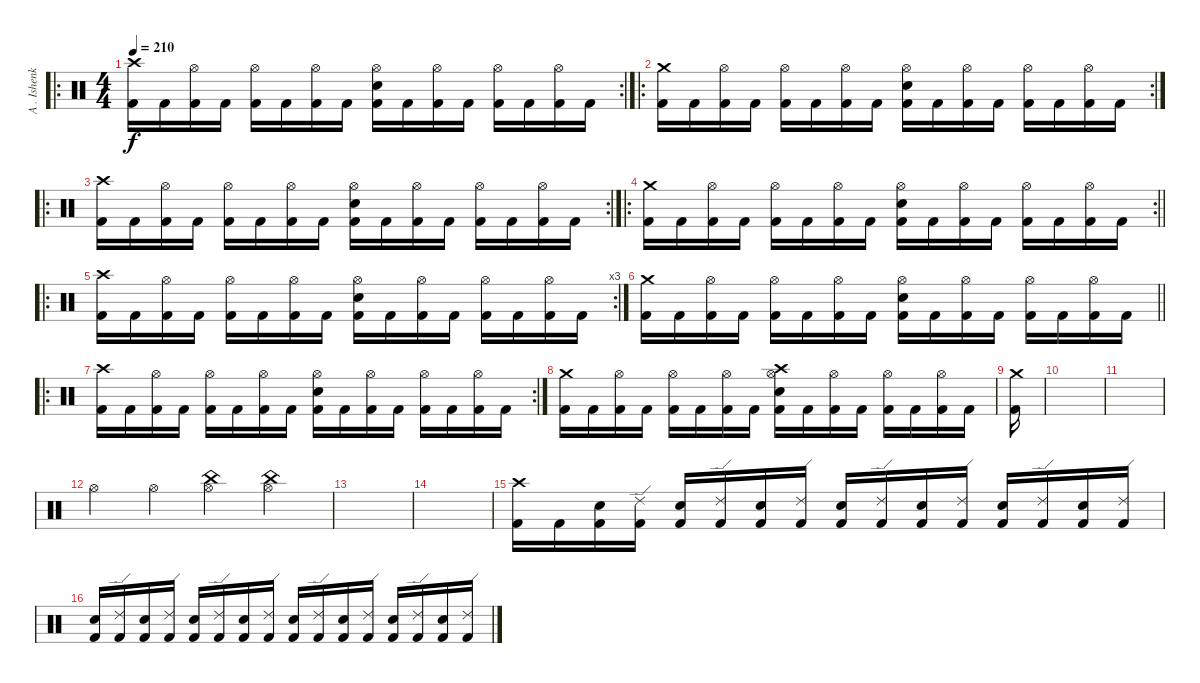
\track ("A . Ishenko" "A . Ishenk") {instrument percussion}
\staff {score}
\articulation defaults
\ro
\rc 2
\ts (4 4)
\tempo 210
\clef neutral
\ks c
("Crash high (hit)" "Kick (hit) 2").16{dy f} "Kick (hit) 2".16 ("Hi-Hat (open)" "Kick (hit) 2").16 "Kick (hit) 2".16 ("Hi-Hat (open)" "Kick (hit) 2").16 "Kick (hit) 2".16 ("Hi-Hat (open)" "Kick (hit) 2").16 "Kick (hit) 2".16 ("Hi-Hat (open)" "Electric Snare (hit)" "Kick (hit) 2").16 "Kick (hit) 2".16 ("Hi-Hat (open)" "Kick (hit) 2").16 "Kick (hit) 2".16 ("Hi-Hat (open)" "Kick (hit) 2").16 "Kick (hit) 2".16 ("Hi-Hat (open)" "Kick (hit) 2").16 "Kick (hit) 2".16 |
\ro
\rc 2
("Crash medium (hit)" "Kick (hit) 2").16 "Kick (hit) 2".16 ("Hi-Hat (open)" "Kick (hit) 2").16 "Kick (hit) 2".16 ("Hi-Hat (open)" "Kick (hit) 2").16 "Kick (hit) 2".16 ("Hi-Hat (open)" "Kick (hit) 2").16 "Kick (hit) 2".16 ("Hi-Hat (open)" "Electric Snare (hit)" "Kick (hit) 2").16 "Kick (hit) 2".16 ("Hi-Hat (open)" "Kick (hit) 2").16 "Kick (hit) 2".16 ("Hi-Hat (open)" "Kick (hit) 2").16 "Kick (hit) 2".16 ("Hi-Hat (open)" "Kick (hit) 2").16 "Kick (hit) 2".16 |
\ro
\rc 2
("Crash high (hit)" "Kick (hit) 2").16 "Kick (hit) 2".16 ("Hi-Hat (open)" "Kick (hit) 2").16 "Kick (hit) 2".16 ("Hi-Hat (open)" "Kick (hit) 2").16 "Kick (hit) 2".16 ("Hi-Hat (open)" "Kick (hit) 2").16 "Kick (hit) 2".16 ("Hi-Hat (open)" "Electric Snare (hit)" "Kick (hit) 2").16 "Kick (hit) 2".16 ("Hi-Hat (open)" "Kick (hit) 2").16 "Kick (hit) 2".16 ("Hi-Hat (open)" "Kick (hit) 2").16 "Kick (hit) 2".16 ("Hi-Hat (open)" "Kick (hit) 2").16 "Kick (hit) 2".16 |
\ro
\rc 2
\barLineRight lightlight
("Crash medium (hit)" "Kick (hit) 2").16 "Kick (hit) 2".16 ("Hi-Hat (open)" "Kick (hit) 2").16 "Kick (hit) 2".16 ("Hi-Hat (open)" "Kick (hit) 2").16 "Kick (hit) 2".16 ("Hi-Hat (open)" "Kick (hit) 2").16 "Kick (hit) 2".16 ("Hi-Hat (open)" "Electric Snare (hit)" "Kick (hit) 2").16 "Kick (hit) 2".16 ("Hi-Hat (open)" "Kick (hit) 2").16 "Kick (hit) 2".16 ("Hi-Hat (open)" "Kick (hit) 2").16 "Kick (hit) 2".16 ("Hi-Hat (open)" "Kick (hit) 2").16 "Kick (hit) 2".16 |
\ro
\rc 3
("Crash high (hit)" "Kick (hit) 2").16 "Kick (hit) 2".16 ("Hi-Hat (open)" "Kick (hit) 2").16 "Kick (hit) 2".16 ("Hi-Hat (open)" "Kick (hit) 2").16 "Kick (hit) 2".16 ("Hi-Hat (open)" "Kick (hit) 2").16 "Kick (hit) 2".16 ("Hi-Hat (open)" "Electric Snare (hit)" "Kick (hit) 2").16 "Kick (hit) 2".16 ("Hi-Hat (open)" "Kick (hit) 2").16 "Kick (hit) 2".16 ("Hi-Hat (open)" "Kick (hit) 2").16 "Kick (hit) 2".16 ("Hi-Hat (open)" "Kick (hit) 2").16 "Kick (hit) 2".16 |
\barLineRight lightlight
("Crash medium (hit)" "Kick (hit) 2").16 "Kick (hit) 2".16 ("Hi-Hat (open)" "Kick (hit) 2").16 "Kick (hit) 2".16 ("Hi-Hat (open)" "Kick (hit) 2").16 "Kick (hit) 2".16 ("Hi-Hat (open)" "Kick (hit) 2").16 "Kick (hit) 2".16 ("Hi-Hat (open)" "Electric Snare (hit)" "Kick (hit) 2").16 "Kick (hit) 2".16 ("Hi-Hat (open)" "Kick (hit) 2").16 "Kick (hit) 2".16 ("Hi-Hat (open)" "Kick (hit) 2").16 "Kick (hit) 2".16 ("Hi-Hat (open)" "Kick (hit) 2").16 "Kick (hit) 2".16 |
\ro
\rc 2
("Crash high (hit)" "Kick (hit) 2").16 "Kick (hit) 2".16 ("Hi-Hat (open)" "Kick (hit) 2").16 "Kick (hit) 2".16 ("Hi-Hat (open)" "Kick (hit) 2").16 "Kick (hit) 2".16 ("Hi-Hat (open)" "Kick (hit) 2").16 "Kick (hit) 2".16 ("Hi-Hat (open)" "Electric Snare (hit)" "Kick (hit) 2").16 "Kick (hit) 2".16 ("Hi-Hat (open)" "Kick (hit) 2").16 "Kick (hit) 2".16 ("Hi-Hat (open)" "Kick (hit) 2").16 "Kick (hit) 2".16 ("Hi-Hat (open)" "Kick (hit) 2").16 "Kick (hit) 2".16 |
("Crash medium (hit)" "Kick (hit) 2").16 "Kick (hit) 2".16 ("Hi-Hat (open)" "Kick (hit) 2").16 "Kick (hit) 2".16 ("Hi-Hat (open)" "Kick (hit) 2").16 "Kick (hit) 2".16 ("Hi-Hat (open)" "Kick (hit) 2").16 "Kick (hit) 2".16 ("Hi-Hat (open)" "Electric Snare (hit)" "Crash high (hit)" "Kick (hit) 2").16 "Kick (hit) 2".16 ("Hi-Hat (open)" "Kick (hit) 2").16 "Kick (hit) 2".16 ("Hi-Hat (open)" "Kick (hit) 2").16 "Kick (hit) 2".16 ("Hi-Hat (open)" "Kick (hit) 2").16 "Kick (hit) 2".16 |
("Crash medium (hit)" "Kick (hit) 2").16 |
|
|
"Hi-Hat (open)".4 "Hi-Hat (open)".4 ("Hi-Hat (open)" "China (hit)").4 ("Hi-Hat (open)" "China (hit)").4 |
|
|
("Crash high (hit)" "Kick (hit) 2").16 "Kick (hit) 2".16 ("Electric Snare (hit)" "Kick (hit) 2").16 ("Ride (edge) 2" "Kick (hit) 2").16 ("Electric Snare (hit)" "Kick (hit) 2").16 ("Ride (edge) 2" "Kick (hit) 2").16 ("Electric Snare (hit)" "Kick (hit) 2").16 ("Ride (edge) 2" "Kick (hit) 2").16 ("Electric Snare (hit)" "Kick (hit) 2").16 ("Ride (edge) 2" "Kick (hit) 2").16 ("Electric Snare (hit)" "Kick (hit) 2").16 ("Ride (edge) 2" "Kick (hit) 2").16 ("Electric Snare (hit)" "Kick (hit) 2").16 ("Ride (edge) 2" "Kick (hit) 2").16 ("Electric Snare (hit)" "Kick (hit) 2").16 ("Ride (edge) 2" "Kick (hit) 2").16 |
("Electric Snare (hit)" "Kick (hit) 2").16 ("Ride (edge) 2" "Kick (hit) 2").16 ("Electric Snare (hit)" "Kick (hit) 2").16 ("Ride (edge) 2" "Kick (hit) 2").16 ("Electric Snare (hit)" "Kick (hit) 2").16 ("Ride (edge) 2" "Kick (hit) 2").16 ("Electric Snare (hit)" "Kick (hit) 2").16 ("Ride (edge) 2" "Kick (hit) 2").16 ("Electric Snare (hit)" "Kick (hit) 2").16 ("Ride (edge) 2" "Kick (hit) 2").16 ("Electric Snare (hit)" "Kick (hit) 2").16 ("Ride (edge) 2" "Kick (hit) 2").16 ("Electric Snare (hit)" "Kick (hit) 2").16 ("Ride (edge) 2" "Kick (hit) 2").16 ("Electric Snare (hit)" "Kick (hit) 2").16 ("Ride (edge) 2" "Kick (hit) 2").16
